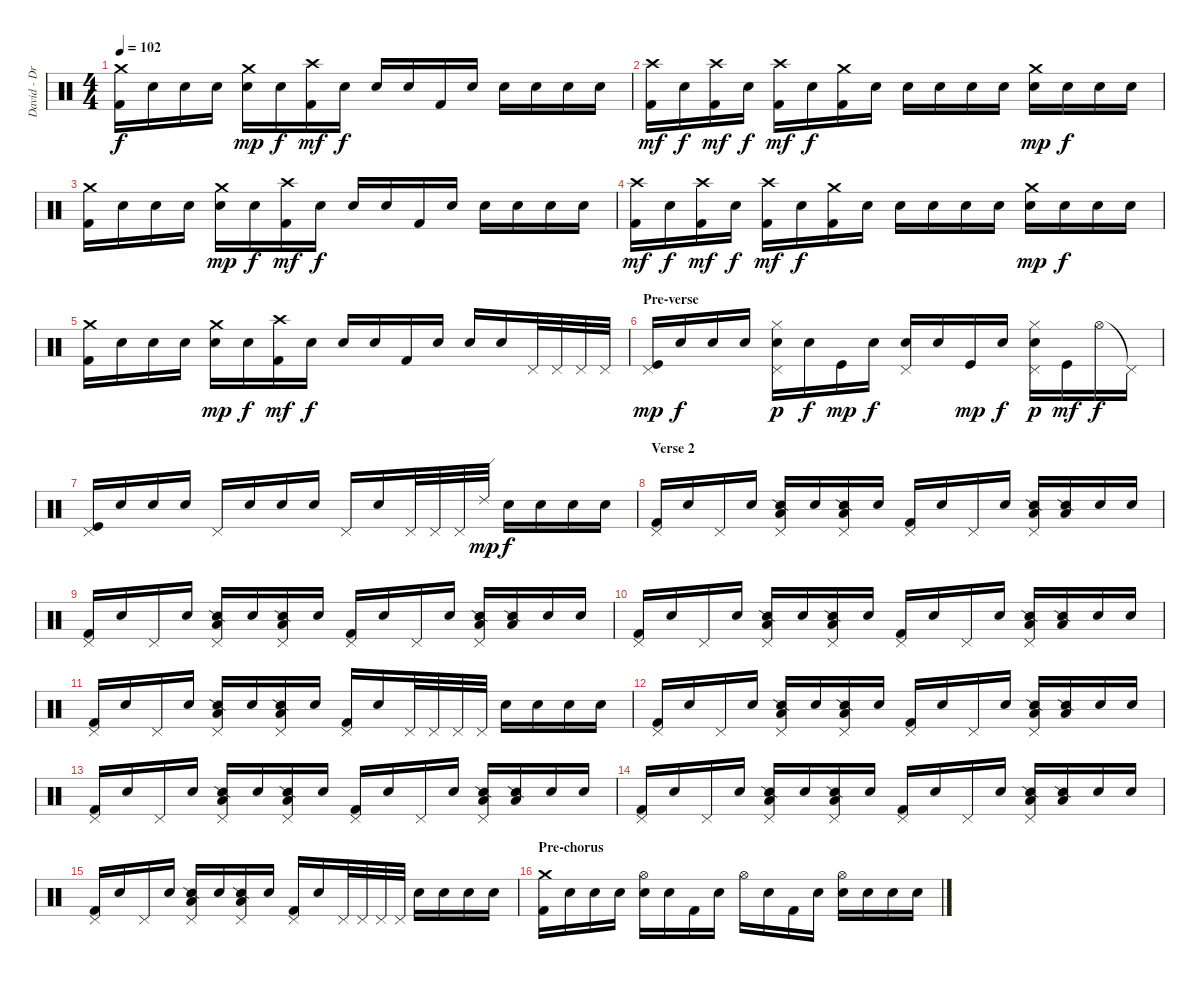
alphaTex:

\track ("David - Drums" "David - Dr") {instrument percussion}
\staff {score}
\articulation defaults
\ts (4 4)
\tempo 102
\clef neutral
\ks c
("Crash medium (hit)" "Kick (hit) 2").16{dy f} "Snare (hit)".16 "Snare (hit)".16 "Snare (hit)".16 ("Crash medium (hit)" "Electric Snare (hit)").16{dy mp} "Snare (hit)".16{dy f} ("Crash high (hit)" "Kick (hit) 2").16{dy mf} "Snare (hit)".16{dy f} "Snare (hit)".16 "Snare (hit)".16 "Kick (hit) 2".16 "Snare (hit)".16 "Electric Snare (hit)".16 "Snare (hit)".16 "Snare (hit)".16 "Snare (hit)".16 |
("Crash high (hit)" "Kick (hit) 2").16{dy mf} "Snare (hit)".16{dy f} ("Crash high (hit)" "Kick (hit) 2").16{dy mf} "Snare (hit)".16{dy f} ("Crash high (hit)" "Kick (hit) 2").16{dy mf} "Snare (hit)".16{dy f} ("Crash medium (hit)" "Kick (hit) 2").16 "Snare (hit)".16 "Snare (hit)".16 "Snare (hit)".16 "Snare (hit)".16 "Snare (hit)".16 ("Crash medium (hit)" "Electric Snare (hit)").16{dy mp} "Snare (hit)".16{dy f} "Snare (hit)".16 "Snare (hit)".16 |
("Crash medium (hit)" "Kick (hit) 2").16 "Snare (hit)".16 "Snare (hit)".16 "Snare (hit)".16 ("Crash medium (hit)" "Electric Snare (hit)").16{dy mp} "Snare (hit)".16{dy f} ("Crash high (hit)" "Kick (hit) 2").16{dy mf} "Snare (hit)".16{dy f} "Snare (hit)".16 "Snare (hit)".16 "Kick (hit) 2".16 "Snare (hit)".16 "Electric Snare (hit)".16 "Snare (hit)".16 "Snare (hit)".16 "Snare (hit)".16 |
("Crash high (hit)" "Kick (hit) 2").16{dy mf} "Snare (hit)".16{dy f} ("Crash high (hit)" "Kick (hit) 2").16{dy mf} "Snare (hit)".16{dy f} ("Crash high (hit)" "Kick (hit) 2").16{dy mf} "Snare (hit)".16{dy f} ("Crash medium (hit)" "Kick (hit) 2").16 "Snare (hit)".16 "Snare (hit)".16 "Snare (hit)".16 "Snare (hit)".16 "Snare (hit)".16 ("Crash medium (hit)" "Electric Snare (hit)").16{dy mp} "Snare (hit)".16{dy f} "Snare (hit)".16 "Snare (hit)".16 |
("Crash medium (hit)" "Kick (hit) 2").16 "Snare (hit)".16 "Snare (hit)".16 "Snare (hit)".16 ("Crash medium (hit)" "Electric Snare (hit)").16{dy mp} "Snare (hit)".16{dy f} ("Crash high (hit)" "Kick (hit) 2").16{dy mf} "Snare (hit)".16{dy f} "Snare (hit)".16 "Snare (hit)".16 "Kick (hit) 2".16 "Snare (hit)".16 "Electric Snare (hit)".16 "Snare (hit)".16 "Pedal Hi-Hat (hit)".32 "Pedal Hi-Hat (hit)".32 "Pedal Hi-Hat (hit)".32 "Pedal Hi-Hat (hit)".32 |
\section ("" "Pre-verse")
("Pedal Hi-Hat (hit)" "Kick (hit)").16{dy mp} "Snare (hit)".16{dy f} "Snare (hit)".16 "Snare (hit)".16 ("Pedal Hi-Hat (hit)" "Electric Snare (hit)" "Hi-Hat (closed)").16{dy p} "Snare (hit)".16{dy f} "Kick (hit)".16{dy mp} "Snare (hit)".16{dy f} ("Pedal Hi-Hat (hit)" "Snare (hit)").16 "Snare (hit)".16 "Kick (hit)".16{dy mp} "Snare (hit)".16{dy f} ("Pedal Hi-Hat (hit)" "Electric Snare (hit)" "Hi-Hat (closed)").16{dy p} "Kick (hit)".16{dy mf} "Hi-Hat (open)".16{dy f} "Pedal Hi-Hat (hit)"{t}.16 |
("Pedal Hi-Hat (hit)" "Kick (hit)").16 "Snare (hit)".16 "Snare (hit)".16 "Snare (hit)".16 "Pedal Hi-Hat (hit)".16 "Snare (hit)".16 "Snare (hit)".16 "Snare (hit)".16 "Pedal Hi-Hat (hit)".16 "Snare (hit)".16 "Pedal Hi-Hat (hit)".32 "Pedal Hi-Hat (hit)".32 "Pedal Hi-Hat (hit)".32 "Ride (edge) 2".32{dy mp} "Snare (hit)".16{dy f} "Snare (hit)".16 "Snare (hit)".16 "Snare (hit)".16 |
\section ("" "Verse 2")
("Pedal Hi-Hat (hit)" "Kick (hit) 2").16{volume 16 balance 8} "Snare (hit)".16 "Pedal Hi-Hat (hit)".16 "Snare (hit)".16 ("Pedal Hi-Hat (hit)" "Low Floor Tom (hit)" "Snare (side stick) 2").16 "Snare (hit)".16 ("Pedal Hi-Hat (hit)" "Low Floor Tom (hit)" "Snare (side stick) 2").16 "Snare (hit)".16 ("Pedal Hi-Hat (hit)" "Kick (hit) 2").16 "Snare (hit)".16 "Pedal Hi-Hat (hit)".16 "Snare (hit)".16 ("Pedal Hi-Hat (hit)" "Low Floor Tom (hit)" "Snare (side stick) 2").16 ("Low Floor Tom (hit)" "Snare (side stick) 2").16 "Snare (hit)".16 "Snare (hit)".16 |
("Pedal Hi-Hat (hit)" "Kick (hit) 2").16 "Snare (hit)".16 "Pedal Hi-Hat (hit)".16 "Snare (hit)".16 ("Pedal Hi-Hat (hit)" "Low Floor Tom (hit)" "Snare (side stick) 2").16 "Snare (hit)".16 ("Pedal Hi-Hat (hit)" "Low Floor Tom (hit)" "Snare (side stick) 2").16 "Snare (hit)".16 ("Pedal Hi-Hat (hit)" "Kick (hit) 2").16 "Snare (hit)".16 "Pedal Hi-Hat (hit)".16 "Snare (hit)".16 ("Pedal Hi-Hat (hit)" "Low Floor Tom (hit)" "Snare (side stick) 2").16 ("Low Floor Tom (hit)" "Snare (side stick) 2").16 "Snare (hit)".16 "Snare (hit)".16 |
("Pedal Hi-Hat (hit)" "Kick (hit) 2").16 "Snare (hit)".16 "Pedal Hi-Hat (hit)".16 "Snare (hit)".16 ("Pedal Hi-Hat (hit)" "Low Floor Tom (hit)" "Snare (side stick) 2").16 "Snare (hit)".16 ("Pedal Hi-Hat (hit)" "Low Floor Tom (hit)" "Snare (side stick) 2").16 "Snare (hit)".16 ("Pedal Hi-Hat (hit)" "Kick (hit) 2").16 "Snare (hit)".16 "Pedal Hi-Hat (hit)".16 "Snare (hit)".16 ("Pedal Hi-Hat (hit)" "Low Floor Tom (hit)" "Snare (side stick) 2").16 ("Low Floor Tom (hit)" "Snare (side stick) 2").16 "Snare (hit)".16 "Snare (hit)".16 |
("Pedal Hi-Hat (hit)" "Kick (hit) 2").16 "Snare (hit)".16 "Pedal Hi-Hat (hit)".16 "Snare (hit)".16 ("Pedal Hi-Hat (hit)" "Low Floor Tom (hit)" "Snare (side stick) 2").16 "Snare (hit)".16 ("Pedal Hi-Hat (hit)" "Low Floor Tom (hit)" "Snare (side stick) 2").16 "Snare (hit)".16 ("Pedal Hi-Hat (hit)" "Kick (hit) 2").16 "Snare (hit)".16 "Pedal Hi-Hat (hit)".32 "Pedal Hi-Hat (hit)".32 "Pedal Hi-Hat (hit)".32 "Pedal Hi-Hat (hit)".32 "Snare (hit)".16 "Snare (hit)".16 "Snare (hit)".16 "Snare (hit)".16 |
("Pedal Hi-Hat (hit)" "Kick (hit) 2").16 "Snare (hit)".16 "Pedal Hi-Hat (hit)".16 "Snare (hit)".16 ("Pedal Hi-Hat (hit)" "Low Floor Tom (hit)" "Snare (side stick) 2").16 "Snare (hit)".16 ("Pedal Hi-Hat (hit)" "Low Floor Tom (hit)" "Snare (side stick) 2").16 "Snare (hit)".16 ("Pedal Hi-Hat (hit)" "Kick (hit) 2").16 "Snare (hit)".16 "Pedal Hi-Hat (hit)".16 "Snare (hit)".16 ("Pedal Hi-Hat (hit)" "Low Floor Tom (hit)" "Snare (side stick) 2").16 ("Low Floor Tom (hit)" "Snare (side stick) 2").16 "Snare (hit)".16 "Snare (hit)".16 |
("Pedal Hi-Hat (hit)" "Kick (hit) 2").16 "Snare (hit)".16 "Pedal Hi-Hat (hit)".16 "Snare (hit)".16 ("Pedal Hi-Hat (hit)" "Low Floor Tom (hit)" "Snare (side stick) 2").16 "Snare (hit)".16 ("Pedal Hi-Hat (hit)" "Low Floor Tom (hit)" "Snare (side stick) 2").16 "Snare (hit)".16 ("Pedal Hi-Hat (hit)" "Kick (hit) 2").16 "Snare (hit)".16 "Pedal Hi-Hat (hit)".16 "Snare (hit)".16 ("Pedal Hi-Hat (hit)" "Low Floor Tom (hit)" "Snare (side stick) 2").16 ("Low Floor Tom (hit)" "Snare (side stick) 2").16 "Snare (hit)".16 "Snare (hit)".16 |
("Pedal Hi-Hat (hit)" "Kick (hit) 2").16 "Snare (hit)".16 "Pedal Hi-Hat (hit)".16 "Snare (hit)".16 ("Pedal Hi-Hat (hit)" "Low Floor Tom (hit)" "Snare (side stick) 2").16 "Snare (hit)".16 ("Pedal Hi-Hat (hit)" "Low Floor Tom (hit)" "Snare (side stick) 2").16 "Snare (hit)".16 ("Pedal Hi-Hat (hit)" "Kick (hit) 2").16 "Snare (hit)".16 "Pedal Hi-Hat (hit)".16 "Snare (hit)".16 ("Pedal Hi-Hat (hit)" "Low Floor Tom (hit)" "Snare (side stick) 2").16 ("Low Floor Tom (hit)" "Snare (side stick) 2").16 "Snare (hit)".16 "Snare (hit)".16 |
("Pedal Hi-Hat (hit)" "Kick (hit) 2").16 "Snare (hit)".16 "Pedal Hi-Hat (hit)".16 "Snare (hit)".16 ("Pedal Hi-Hat (hit)" "Low Floor Tom (hit)" "Snare (side stick) 2").16 "Snare (hit)".16 ("Pedal Hi-Hat (hit)" "Low Floor Tom (hit)" "Snare (side stick) 2").16 "Snare (hit)".16 ("Pedal Hi-Hat (hit)" "Kick (hit) 2").16 "Snare (hit)".16 "Pedal Hi-Hat (hit)".32 "Pedal Hi-Hat (hit)".32 "Pedal Hi-Hat (hit)".32 "Pedal Hi-Hat (hit)".32 "Snare (hit)".16 "Snare (hit)".16 "Snare (hit)".16 "Snare (hit)".16 |
\section ("" "Pre-chorus")
("Crash medium (hit)" "Kick (hit) 2").16{volume 16 balance 8} "Snare (hit)".16 "Snare (hit)".16 "Snare (hit)".16 ("Hi-Hat (open)" "Electric Snare (hit)").16 "Snare (hit)".16 "Kick (hit) 2".16 "Snare (hit)".16 "Hi-Hat (open)".16 "Snare (hit)".16 "Kick (hit) 2".16 "Snare (hit)".16 ("Hi-Hat (open)" "Electric Snare (hit)").16 "Snare (hit)".16 "Snare (hit)".16 "Snare (hit)".16
